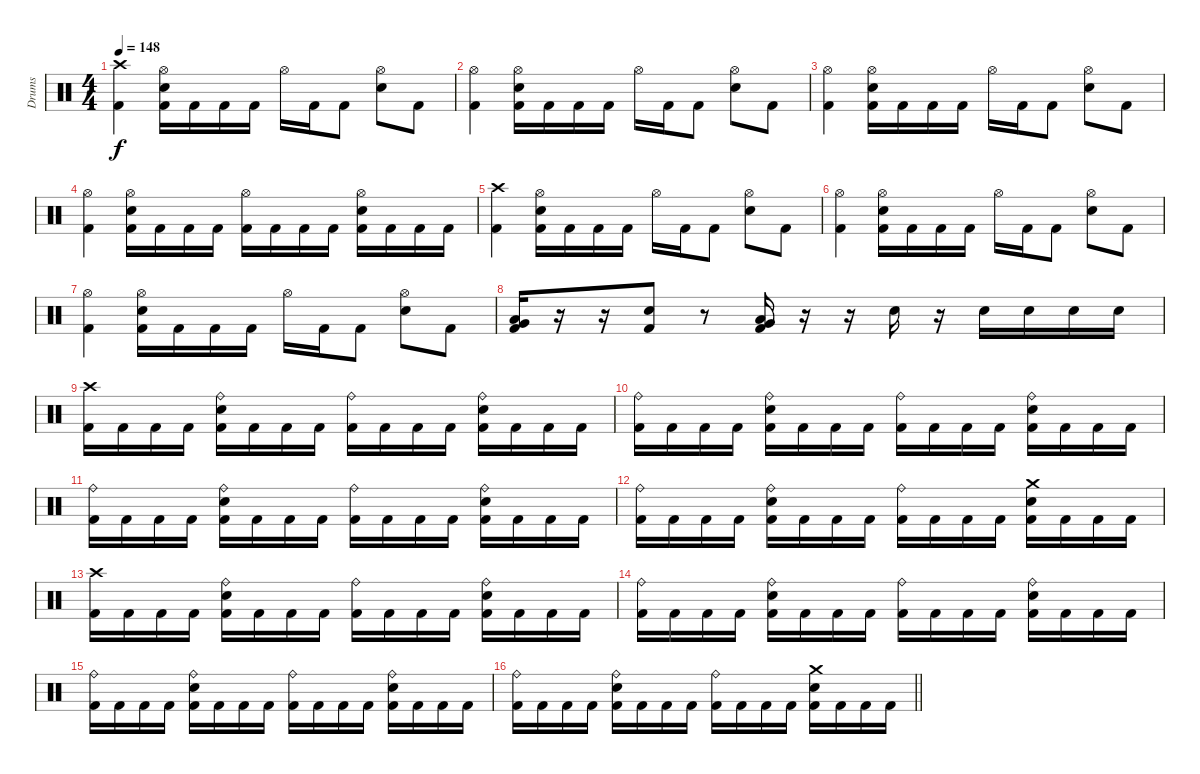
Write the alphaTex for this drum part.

\track ("Drums" "Drums") {instrument percussion}
\staff {score}
\articulation defaults
\ts (4 4)
\section ("" "")
\tempo 148
\clef neutral
\ks c
("Crash high (hit)" "Kick (hit) 2").4{dy f} ("Electric Snare (hit)" "Hi-Hat (open)" "Kick (hit) 2").16 "Kick (hit) 2".16 "Kick (hit) 2".16 "Kick (hit) 2".16 "Hi-Hat (open)".16 "Kick (hit) 2".16 "Kick (hit) 2".8 ("Electric Snare (hit)" "Hi-Hat (open)").8 "Kick (hit) 2".8 |
("Hi-Hat (open)" "Kick (hit) 2").4 ("Electric Snare (hit)" "Hi-Hat (open)" "Kick (hit) 2").16 "Kick (hit) 2".16 "Kick (hit) 2".16 "Kick (hit) 2".16 "Hi-Hat (open)".16 "Kick (hit) 2".16 "Kick (hit) 2".8 ("Electric Snare (hit)" "Hi-Hat (open)").8 "Kick (hit) 2".8 |
("Hi-Hat (open)" "Kick (hit) 2").4 ("Electric Snare (hit)" "Hi-Hat (open)" "Kick (hit) 2").16 "Kick (hit) 2".16 "Kick (hit) 2".16 "Kick (hit) 2".16 "Hi-Hat (open)".16 "Kick (hit) 2".16 "Kick (hit) 2".8 ("Electric Snare (hit)" "Hi-Hat (open)").8 "Kick (hit) 2".8 |
("Hi-Hat (open)" "Kick (hit) 2").4 ("Electric Snare (hit)" "Hi-Hat (open)" "Kick (hit) 2").16 "Kick (hit) 2".16 "Kick (hit) 2".16 "Kick (hit) 2".16 ("Hi-Hat (open)" "Kick (hit) 2").16 "Kick (hit) 2".16 "Kick (hit) 2".16 "Kick (hit) 2".16 ("Electric Snare (hit)" "Hi-Hat (open)" "Kick (hit) 2").16 "Kick (hit) 2".16 "Kick (hit) 2".16 "Kick (hit) 2".16 |
("Crash high (hit)" "Kick (hit) 2").4 ("Electric Snare (hit)" "Hi-Hat (open)" "Kick (hit) 2").16 "Kick (hit) 2".16 "Kick (hit) 2".16 "Kick (hit) 2".16 "Hi-Hat (open)".16 "Kick (hit) 2".16 "Kick (hit) 2".8 ("Electric Snare (hit)" "Hi-Hat (open)").8 "Kick (hit) 2".8 |
("Hi-Hat (open)" "Kick (hit) 2").4 ("Electric Snare (hit)" "Hi-Hat (open)" "Kick (hit) 2").16 "Kick (hit) 2".16 "Kick (hit) 2".16 "Kick (hit) 2".16 "Hi-Hat (open)".16 "Kick (hit) 2".16 "Kick (hit) 2".8 ("Electric Snare (hit)" "Hi-Hat (open)").8 "Kick (hit) 2".8 |
("Hi-Hat (open)" "Kick (hit) 2").4 ("Electric Snare (hit)" "Hi-Hat (open)" "Kick (hit) 2").16 "Kick (hit) 2".16 "Kick (hit) 2".16 "Kick (hit) 2".16 "Hi-Hat (open)".16 "Kick (hit) 2".16 "Kick (hit) 2".8 ("Electric Snare (hit)" "Hi-Hat (open)").8 "Kick (hit) 2".8 |
("Very Low Tom (hit)" "Low Tom (hit)" "Kick (hit) 2").16 r.16 r.16 ("Electric Snare (hit)" "Kick (hit) 2").8 r.8 ("Very Low Tom (hit)" "Low Tom (hit)" "Kick (hit) 2").16 r.16 r.16 "Electric Snare (hit)".16 r.16 "Electric Snare (hit)".16 "Electric Snare (hit)".16 "Electric Snare (hit)".16 "Electric Snare (hit)".16 |
("Crash high (hit)" "Kick (hit) 2").16 "Kick (hit) 2".16 "Kick (hit) 2".16 "Kick (hit) 2".16 ("Ride (bell)" "Electric Snare (hit)" "Kick (hit) 2").16 "Kick (hit) 2".16 "Kick (hit) 2".16 "Kick (hit) 2".16 ("Ride (bell)" "Kick (hit) 2").16 "Kick (hit) 2".16 "Kick (hit) 2".16 "Kick (hit) 2".16 ("Ride (bell)" "Electric Snare (hit)" "Kick (hit) 2").16 "Kick (hit) 2".16 "Kick (hit) 2".16 "Kick (hit) 2".16 |
("Ride (bell)" "Kick (hit) 2").16 "Kick (hit) 2".16 "Kick (hit) 2".16 "Kick (hit) 2".16 ("Ride (bell)" "Electric Snare (hit)" "Kick (hit) 2").16 "Kick (hit) 2".16 "Kick (hit) 2".16 "Kick (hit) 2".16 ("Ride (bell)" "Kick (hit) 2").16 "Kick (hit) 2".16 "Kick (hit) 2".16 "Kick (hit) 2".16 ("Ride (bell)" "Electric Snare (hit)" "Kick (hit) 2").16 "Kick (hit) 2".16 "Kick (hit) 2".16 "Kick (hit) 2".16 |
("Ride (bell)" "Kick (hit) 2").16 "Kick (hit) 2".16 "Kick (hit) 2".16 "Kick (hit) 2".16 ("Ride (bell)" "Electric Snare (hit)" "Kick (hit) 2").16 "Kick (hit) 2".16 "Kick (hit) 2".16 "Kick (hit) 2".16 ("Ride (bell)" "Kick (hit) 2").16 "Kick (hit) 2".16 "Kick (hit) 2".16 "Kick (hit) 2".16 ("Ride (bell)" "Electric Snare (hit)" "Kick (hit) 2").16 "Kick (hit) 2".16 "Kick (hit) 2".16 "Kick (hit) 2".16 |
("Ride (bell)" "Kick (hit) 2").16 "Kick (hit) 2".16 "Kick (hit) 2".16 "Kick (hit) 2".16 ("Ride (bell)" "Electric Snare (hit)" "Kick (hit) 2").16 "Kick (hit) 2".16 "Kick (hit) 2".16 "Kick (hit) 2".16 ("Ride (bell)" "Kick (hit) 2").16 "Kick (hit) 2".16 "Kick (hit) 2".16 "Kick (hit) 2".16 ("Crash medium (hit)" "Electric Snare (hit)" "Kick (hit) 2").16 "Kick (hit) 2".16 "Kick (hit) 2".16 "Kick (hit) 2".16 |
("Crash high (hit)" "Kick (hit) 2").16 "Kick (hit) 2".16 "Kick (hit) 2".16 "Kick (hit) 2".16 ("Ride (bell)" "Electric Snare (hit)" "Kick (hit) 2").16 "Kick (hit) 2".16 "Kick (hit) 2".16 "Kick (hit) 2".16 ("Ride (bell)" "Kick (hit) 2").16 "Kick (hit) 2".16 "Kick (hit) 2".16 "Kick (hit) 2".16 ("Ride (bell)" "Electric Snare (hit)" "Kick (hit) 2").16 "Kick (hit) 2".16 "Kick (hit) 2".16 "Kick (hit) 2".16 |
("Ride (bell)" "Kick (hit) 2").16 "Kick (hit) 2".16 "Kick (hit) 2".16 "Kick (hit) 2".16 ("Ride (bell)" "Electric Snare (hit)" "Kick (hit) 2").16 "Kick (hit) 2".16 "Kick (hit) 2".16 "Kick (hit) 2".16 ("Ride (bell)" "Kick (hit) 2").16 "Kick (hit) 2".16 "Kick (hit) 2".16 "Kick (hit) 2".16 ("Ride (bell)" "Electric Snare (hit)" "Kick (hit) 2").16 "Kick (hit) 2".16 "Kick (hit) 2".16 "Kick (hit) 2".16 |
("Ride (bell)" "Kick (hit) 2").16 "Kick (hit) 2".16 "Kick (hit) 2".16 "Kick (hit) 2".16 ("Ride (bell)" "Electric Snare (hit)" "Kick (hit) 2").16 "Kick (hit) 2".16 "Kick (hit) 2".16 "Kick (hit) 2".16 ("Ride (bell)" "Kick (hit) 2").16 "Kick (hit) 2".16 "Kick (hit) 2".16 "Kick (hit) 2".16 ("Ride (bell)" "Electric Snare (hit)" "Kick (hit) 2").16 "Kick (hit) 2".16 "Kick (hit) 2".16 "Kick (hit) 2".16 |
\barLineRight lightlight
("Ride (bell)" "Kick (hit) 2").16 "Kick (hit) 2".16 "Kick (hit) 2".16 "Kick (hit) 2".16 ("Ride (bell)" "Electric Snare (hit)" "Kick (hit) 2").16 "Kick (hit) 2".16 "Kick (hit) 2".16 "Kick (hit) 2".16 ("Ride (bell)" "Kick (hit) 2").16 "Kick (hit) 2".16 "Kick (hit) 2".16 "Kick (hit) 2".16 ("Crash medium (hit)" "Electric Snare (hit)" "Kick (hit) 2").16 "Kick (hit) 2".16 "Kick (hit) 2".16 "Kick (hit) 2".16
